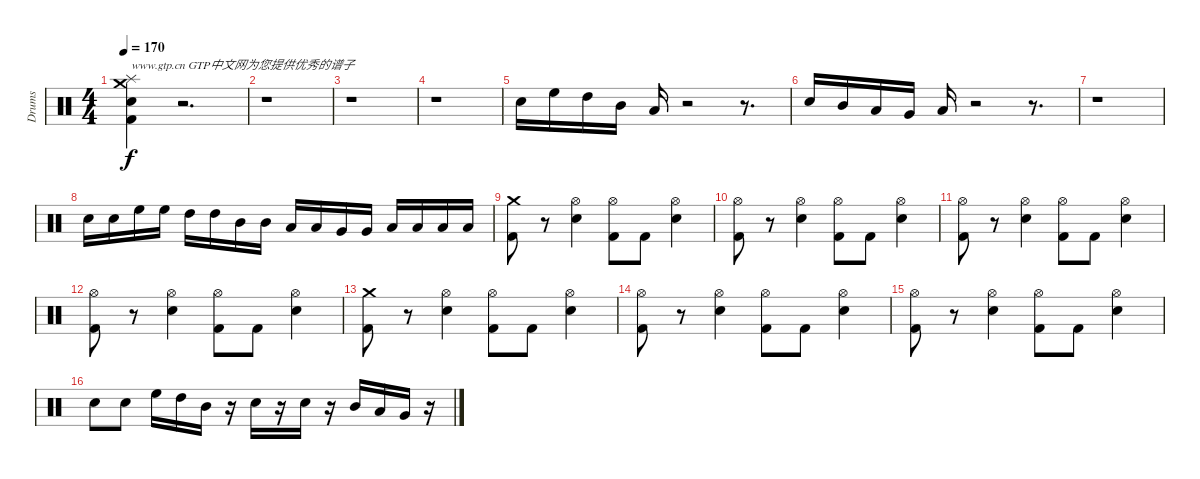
\track ("Drums" "Drums") {instrument percussion}
\staff {score}
\articulation defaults
\ts (4 4)
\tempo 170
\clef neutral
\ks c
("Splash (hit)" "Crash medium (hit)" "Electric Snare (hit)" "Kick (hit) 2").4{txt "www.gtp.cn GTP中文网为您提供优秀的谱子" dy f} r.2{d} |
r.1 |
r.1 |
r.1 |
"Electric Snare (hit)".16 "High Floor Tom (hit)".16 "High Tom (hit)".16 "Mid Tom (hit)".16 "Low Tom (hit)".16 r.2 r.8{d} |
"Electric Snare (hit)".16 "Mid Tom (hit)".16 "Low Tom (hit)".16 "Very Low Tom (hit)".16 "Low Floor Tom (hit)".16 r.2 r.8{d} |
r.1 |
"Electric Snare (hit)".16 "Electric Snare (hit)".16 "High Floor Tom (hit)".16 "High Floor Tom (hit)".16 "High Tom (hit)".16 "High Tom (hit)".16 "Mid Tom (hit)".16 "Mid Tom (hit)".16 "Low Tom (hit)".16 "Low Tom (hit)".16 "Very Low Tom (hit)".16 "Very Low Tom (hit)".16 "Low Floor Tom (hit)".16 "Low Floor Tom (hit)".16 "Low Floor Tom (hit)".16 "Low Floor Tom (hit)".16 |
("Kick (hit) 2" "Crash medium (hit)").8 r.8 ("Hi-Hat (open)" "Electric Snare (hit)").4 ("Hi-Hat (open)" "Kick (hit) 2").8 "Kick (hit) 2".8 ("Hi-Hat (open)" "Electric Snare (hit)").4 |
("Hi-Hat (open)" "Kick (hit) 2").8 r.8 ("Hi-Hat (open)" "Electric Snare (hit)").4 ("Hi-Hat (open)" "Kick (hit) 2").8 "Kick (hit) 2".8 ("Hi-Hat (open)" "Electric Snare (hit)").4 |
("Hi-Hat (open)" "Kick (hit) 2").8 r.8 ("Hi-Hat (open)" "Electric Snare (hit)").4 ("Hi-Hat (open)" "Kick (hit) 2").8 "Kick (hit) 2".8 ("Hi-Hat (open)" "Electric Snare (hit)").4 |
("Hi-Hat (open)" "Kick (hit) 2").8 r.8 ("Hi-Hat (open)" "Electric Snare (hit)").4 ("Hi-Hat (open)" "Kick (hit) 2").8 "Kick (hit) 2".8 ("Hi-Hat (open)" "Electric Snare (hit)").4 |
("Kick (hit) 2" "Crash medium (hit)").8 r.8 ("Hi-Hat (open)" "Electric Snare (hit)").4 ("Hi-Hat (open)" "Kick (hit) 2").8 "Kick (hit) 2".8 ("Hi-Hat (open)" "Electric Snare (hit)").4 |
("Hi-Hat (open)" "Kick (hit) 2").8 r.8 ("Hi-Hat (open)" "Electric Snare (hit)").4 ("Hi-Hat (open)" "Kick (hit) 2").8 "Kick (hit) 2".8 ("Hi-Hat (open)" "Electric Snare (hit)").4 |
("Hi-Hat (open)" "Kick (hit) 2").8 r.8 ("Hi-Hat (open)" "Electric Snare (hit)").4 ("Hi-Hat (open)" "Kick (hit) 2").8 "Kick (hit) 2".8 ("Electric Snare (hit)" "Hi-Hat (open)").4 |
"Electric Snare (hit)".8 "Electric Snare (hit)".8 "High Floor Tom (hit)".16 "High Tom (hit)".16 "Mid Tom (hit)".16 r.16 "Electric Snare (hit)".16 r.16 "Electric Snare (hit)".16 r.16 "Mid Tom (hit)".16 "Low Tom (hit)".16 "Very Low Tom (hit)".16 r.16
